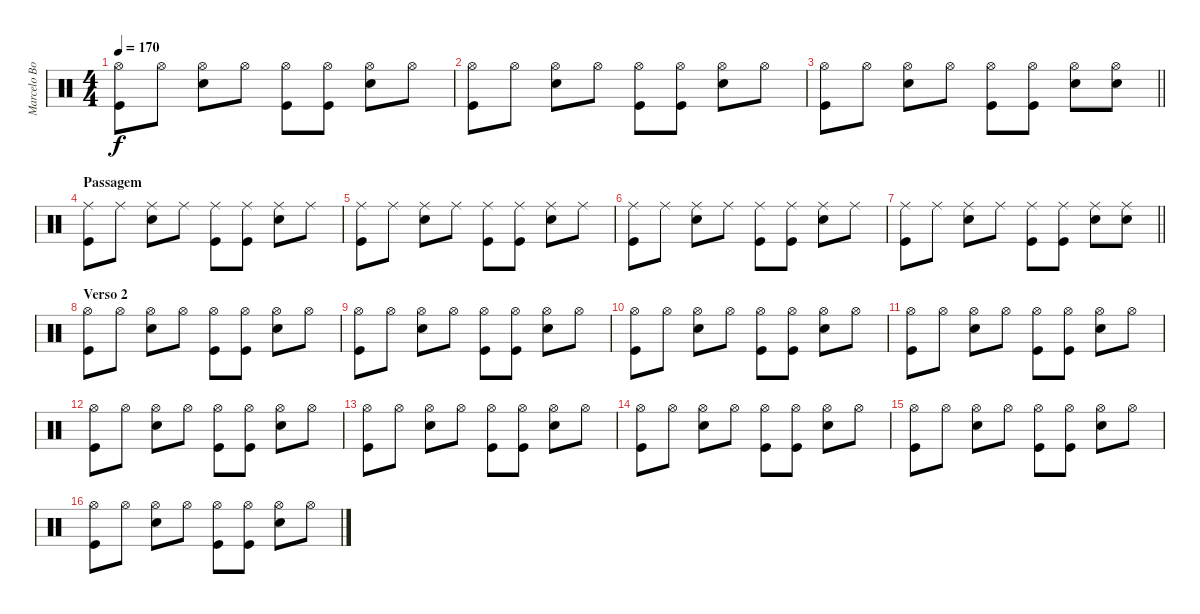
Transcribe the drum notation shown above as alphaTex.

\track ("Marcelo Bonfá" "Marcelo Bo") {instrument percussion}
\staff {score}
\articulation defaults
\ts (4 4)
\tempo 170
\clef neutral
\ks c
("Hi-Hat (open)" "Kick (hit)").8{dy f} "Hi-Hat (open)".8 ("Hi-Hat (open)" "Snare (hit) 2").8 "Hi-Hat (open)".8 ("Hi-Hat (open)" "Kick (hit)").8 ("Hi-Hat (open)" "Kick (hit)").8 ("Hi-Hat (open)" "Snare (hit) 2").8 "Hi-Hat (open)".8 |
("Hi-Hat (open)" "Kick (hit)").8 "Hi-Hat (open)".8 ("Hi-Hat (open)" "Snare (hit) 2").8 "Hi-Hat (open)".8 ("Hi-Hat (open)" "Kick (hit)").8 ("Hi-Hat (open)" "Kick (hit)").8 ("Hi-Hat (open)" "Snare (hit) 2").8 "Hi-Hat (open)".8 |
\barLineRight lightlight
("Hi-Hat (open)" "Kick (hit)").8 "Hi-Hat (open)".8 ("Hi-Hat (open)" "Snare (hit) 2").8 "Hi-Hat (open)".8 ("Hi-Hat (open)" "Kick (hit)").8 ("Hi-Hat (open)" "Kick (hit)").8 ("Hi-Hat (open)" "Snare (hit) 2").8 ("Hi-Hat (open)" "Snare (hit) 2").8 |
\section ("" "Passagem")
("Ride (middle)" "Kick (hit)").8 "Ride (middle)".8 ("Ride (middle)" "Snare (hit) 2").8 "Ride (middle)".8 ("Ride (middle)" "Kick (hit)").8 ("Ride (middle)" "Kick (hit)").8 ("Ride (middle)" "Snare (hit) 2").8 "Ride (middle)".8 |
("Ride (middle)" "Kick (hit)").8 "Ride (middle)".8 ("Ride (middle)" "Snare (hit) 2").8 "Ride (middle)".8 ("Ride (middle)" "Kick (hit)").8 ("Ride (middle)" "Kick (hit)").8 ("Ride (middle)" "Snare (hit) 2").8 "Ride (middle)".8 |
("Ride (middle)" "Kick (hit)").8 "Ride (middle)".8 ("Ride (middle)" "Snare (hit) 2").8 "Ride (middle)".8 ("Ride (middle)" "Kick (hit)").8 ("Ride (middle)" "Kick (hit)").8 ("Ride (middle)" "Snare (hit) 2").8 "Ride (middle)".8 |
\barLineRight lightlight
("Ride (middle)" "Kick (hit)").8 "Ride (middle)".8 ("Ride (middle)" "Snare (hit) 2").8 "Ride (middle)".8 ("Ride (middle)" "Kick (hit)").8 ("Ride (middle)" "Kick (hit)").8 ("Ride (middle)" "Snare (hit) 2").8 ("Ride (middle)" "Snare (hit) 2").8 |
\section ("" "Verso 2")
("Hi-Hat (open)" "Kick (hit)").8 "Hi-Hat (open)".8 ("Hi-Hat (open)" "Snare (hit) 2").8 "Hi-Hat (open)".8 ("Hi-Hat (open)" "Kick (hit)").8 ("Hi-Hat (open)" "Kick (hit)").8 ("Hi-Hat (open)" "Snare (hit) 2").8 "Hi-Hat (open)".8 |
("Hi-Hat (open)" "Kick (hit)").8 "Hi-Hat (open)".8 ("Hi-Hat (open)" "Snare (hit) 2").8 "Hi-Hat (open)".8 ("Hi-Hat (open)" "Kick (hit)").8 ("Hi-Hat (open)" "Kick (hit)").8 ("Hi-Hat (open)" "Snare (hit) 2").8 "Hi-Hat (open)".8 |
("Hi-Hat (open)" "Kick (hit)").8 "Hi-Hat (open)".8 ("Hi-Hat (open)" "Snare (hit) 2").8 "Hi-Hat (open)".8 ("Hi-Hat (open)" "Kick (hit)").8 ("Hi-Hat (open)" "Kick (hit)").8 ("Hi-Hat (open)" "Snare (hit) 2").8 "Hi-Hat (open)".8 |
("Hi-Hat (open)" "Kick (hit)").8 "Hi-Hat (open)".8 ("Hi-Hat (open)" "Snare (hit) 2").8 "Hi-Hat (open)".8 ("Hi-Hat (open)" "Kick (hit)").8 ("Hi-Hat (open)" "Kick (hit)").8 ("Hi-Hat (open)" "Snare (hit) 2").8 "Hi-Hat (open)".8 |
("Hi-Hat (open)" "Kick (hit)").8 "Hi-Hat (open)".8 ("Hi-Hat (open)" "Snare (hit) 2").8 "Hi-Hat (open)".8 ("Hi-Hat (open)" "Kick (hit)").8 ("Hi-Hat (open)" "Kick (hit)").8 ("Hi-Hat (open)" "Snare (hit) 2").8 "Hi-Hat (open)".8 |
("Hi-Hat (open)" "Kick (hit)").8 "Hi-Hat (open)".8 ("Hi-Hat (open)" "Snare (hit) 2").8 "Hi-Hat (open)".8 ("Hi-Hat (open)" "Kick (hit)").8 ("Hi-Hat (open)" "Kick (hit)").8 ("Hi-Hat (open)" "Snare (hit) 2").8 "Hi-Hat (open)".8 |
("Hi-Hat (open)" "Kick (hit)").8 "Hi-Hat (open)".8 ("Hi-Hat (open)" "Snare (hit) 2").8 "Hi-Hat (open)".8 ("Hi-Hat (open)" "Kick (hit)").8 ("Hi-Hat (open)" "Kick (hit)").8 ("Hi-Hat (open)" "Snare (hit) 2").8 "Hi-Hat (open)".8 |
("Hi-Hat (open)" "Kick (hit)").8 "Hi-Hat (open)".8 ("Hi-Hat (open)" "Snare (hit) 2").8 "Hi-Hat (open)".8 ("Hi-Hat (open)" "Kick (hit)").8 ("Hi-Hat (open)" "Kick (hit)").8 ("Hi-Hat (open)" "Snare (hit) 2").8 "Hi-Hat (open)".8 |
("Hi-Hat (open)" "Kick (hit)").8 "Hi-Hat (open)".8 ("Hi-Hat (open)" "Snare (hit) 2").8 "Hi-Hat (open)".8 ("Hi-Hat (open)" "Kick (hit)").8 ("Hi-Hat (open)" "Kick (hit)").8 ("Hi-Hat (open)" "Snare (hit) 2").8 "Hi-Hat (open)".8
